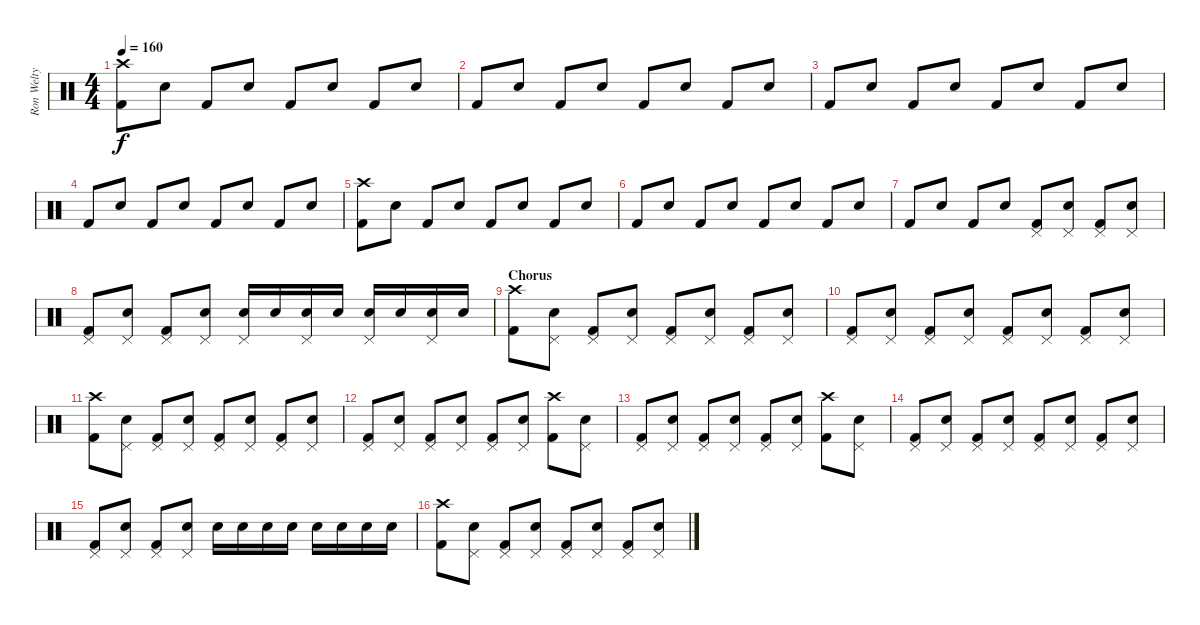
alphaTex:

\track ("Ron Welty" "Ron Welty") {instrument percussion}
\staff {score}
\articulation defaults
\ts (4 4)
\tempo 160
\clef neutral
\ks c
("Crash high (hit)" "Kick (hit) 2").8{dy f} "Snare (hit) 2".8 "Kick (hit) 2".8 "Snare (hit) 2".8 "Kick (hit) 2".8 "Snare (hit) 2".8 "Kick (hit) 2".8 "Snare (hit) 2".8 |
"Kick (hit) 2".8 "Snare (hit) 2".8 "Kick (hit) 2".8 "Snare (hit) 2".8 "Kick (hit) 2".8 "Snare (hit) 2".8 "Kick (hit) 2".8 "Snare (hit) 2".8 |
"Kick (hit) 2".8 "Snare (hit) 2".8 "Kick (hit) 2".8 "Snare (hit) 2".8 "Kick (hit) 2".8 "Snare (hit) 2".8 "Kick (hit) 2".8 "Snare (hit) 2".8 |
"Kick (hit) 2".8 "Snare (hit) 2".8 "Kick (hit) 2".8 "Snare (hit) 2".8 "Kick (hit) 2".8 "Snare (hit) 2".8 "Kick (hit) 2".8 "Snare (hit) 2".8 |
("Crash high (hit)" "Kick (hit) 2").8 "Snare (hit) 2".8 "Kick (hit) 2".8 "Snare (hit) 2".8 "Kick (hit) 2".8 "Snare (hit) 2".8 "Kick (hit) 2".8 "Snare (hit) 2".8 |
"Kick (hit) 2".8 "Snare (hit) 2".8 "Kick (hit) 2".8 "Snare (hit) 2".8 "Kick (hit) 2".8 "Snare (hit) 2".8 "Kick (hit) 2".8 "Snare (hit) 2".8 |
"Kick (hit) 2".8 "Snare (hit) 2".8 "Kick (hit) 2".8 "Snare (hit) 2".8 ("Pedal Hi-Hat (hit)" "Kick (hit) 2").8 ("Pedal Hi-Hat (hit)" "Snare (hit) 2").8 ("Pedal Hi-Hat (hit)" "Kick (hit) 2").8 ("Pedal Hi-Hat (hit)" "Snare (hit) 2").8 |
("Pedal Hi-Hat (hit)" "Kick (hit) 2").8 ("Pedal Hi-Hat (hit)" "Snare (hit) 2").8 ("Pedal Hi-Hat (hit)" "Kick (hit) 2").8 ("Pedal Hi-Hat (hit)" "Snare (hit) 2").8 ("Pedal Hi-Hat (hit)" "Snare (hit) 2").16 "Snare (hit) 2".16 ("Pedal Hi-Hat (hit)" "Snare (hit) 2").16 "Snare (hit) 2".16 ("Pedal Hi-Hat (hit)" "Snare (hit) 2").16 "Snare (hit) 2".16 ("Pedal Hi-Hat (hit)" "Snare (hit) 2").16 "Snare (hit) 2".16 |
\section ("" "Chorus")
("Crash high (hit)" "Kick (hit) 2").8 ("Pedal Hi-Hat (hit)" "Snare (hit) 2").8 ("Pedal Hi-Hat (hit)" "Kick (hit) 2").8 ("Pedal Hi-Hat (hit)" "Snare (hit) 2").8 ("Pedal Hi-Hat (hit)" "Kick (hit) 2").8 ("Pedal Hi-Hat (hit)" "Snare (hit) 2").8 ("Pedal Hi-Hat (hit)" "Kick (hit) 2").8 ("Pedal Hi-Hat (hit)" "Snare (hit) 2").8 |
("Pedal Hi-Hat (hit)" "Kick (hit) 2").8 ("Pedal Hi-Hat (hit)" "Snare (hit) 2").8 ("Pedal Hi-Hat (hit)" "Kick (hit) 2").8 ("Pedal Hi-Hat (hit)" "Snare (hit) 2").8 ("Pedal Hi-Hat (hit)" "Kick (hit) 2").8 ("Pedal Hi-Hat (hit)" "Snare (hit) 2").8 ("Pedal Hi-Hat (hit)" "Kick (hit) 2").8 ("Pedal Hi-Hat (hit)" "Snare (hit) 2").8 |
("Crash high (hit)" "Kick (hit) 2").8 ("Pedal Hi-Hat (hit)" "Snare (hit) 2").8 ("Pedal Hi-Hat (hit)" "Kick (hit) 2").8 ("Pedal Hi-Hat (hit)" "Snare (hit) 2").8 ("Pedal Hi-Hat (hit)" "Kick (hit) 2").8 ("Pedal Hi-Hat (hit)" "Snare (hit) 2").8 ("Pedal Hi-Hat (hit)" "Kick (hit) 2").8 ("Pedal Hi-Hat (hit)" "Snare (hit) 2").8 |
("Pedal Hi-Hat (hit)" "Kick (hit) 2").8 ("Pedal Hi-Hat (hit)" "Snare (hit) 2").8 ("Pedal Hi-Hat (hit)" "Kick (hit) 2").8 ("Pedal Hi-Hat (hit)" "Snare (hit) 2").8 ("Pedal Hi-Hat (hit)" "Kick (hit) 2").8 ("Pedal Hi-Hat (hit)" "Snare (hit) 2").8 ("Crash high (hit)" "Kick (hit) 2").8 ("Pedal Hi-Hat (hit)" "Snare (hit) 2").8 |
("Pedal Hi-Hat (hit)" "Kick (hit) 2").8 ("Pedal Hi-Hat (hit)" "Snare (hit) 2").8 ("Pedal Hi-Hat (hit)" "Kick (hit) 2").8 ("Pedal Hi-Hat (hit)" "Snare (hit) 2").8 ("Pedal Hi-Hat (hit)" "Kick (hit) 2").8 ("Pedal Hi-Hat (hit)" "Snare (hit) 2").8 ("Crash high (hit)" "Kick (hit) 2").8 ("Pedal Hi-Hat (hit)" "Snare (hit) 2").8 |
("Pedal Hi-Hat (hit)" "Kick (hit) 2").8 ("Pedal Hi-Hat (hit)" "Snare (hit) 2").8 ("Pedal Hi-Hat (hit)" "Kick (hit) 2").8 ("Pedal Hi-Hat (hit)" "Snare (hit) 2").8 ("Pedal Hi-Hat (hit)" "Kick (hit) 2").8 ("Pedal Hi-Hat (hit)" "Snare (hit) 2").8 ("Pedal Hi-Hat (hit)" "Kick (hit) 2").8 ("Pedal Hi-Hat (hit)" "Snare (hit) 2").8 |
("Pedal Hi-Hat (hit)" "Kick (hit) 2").8 ("Pedal Hi-Hat (hit)" "Snare (hit) 2").8 ("Pedal Hi-Hat (hit)" "Kick (hit) 2").8 ("Pedal Hi-Hat (hit)" "Snare (hit) 2").8 "Snare (hit) 2".16 "Snare (hit) 2".16 "Snare (hit) 2".16 "Snare (hit) 2".16 "Snare (hit) 2".16 "Snare (hit) 2".16 "Snare (hit) 2".16 "Snare (hit) 2".16 |
("Crash high (hit)" "Kick (hit) 2").8 ("Pedal Hi-Hat (hit)" "Snare (hit) 2").8 ("Pedal Hi-Hat (hit)" "Kick (hit) 2").8 ("Pedal Hi-Hat (hit)" "Snare (hit) 2").8 ("Pedal Hi-Hat (hit)" "Kick (hit) 2").8 ("Pedal Hi-Hat (hit)" "Snare (hit) 2").8 ("Pedal Hi-Hat (hit)" "Kick (hit) 2").8 ("Pedal Hi-Hat (hit)" "Snare (hit) 2").8
